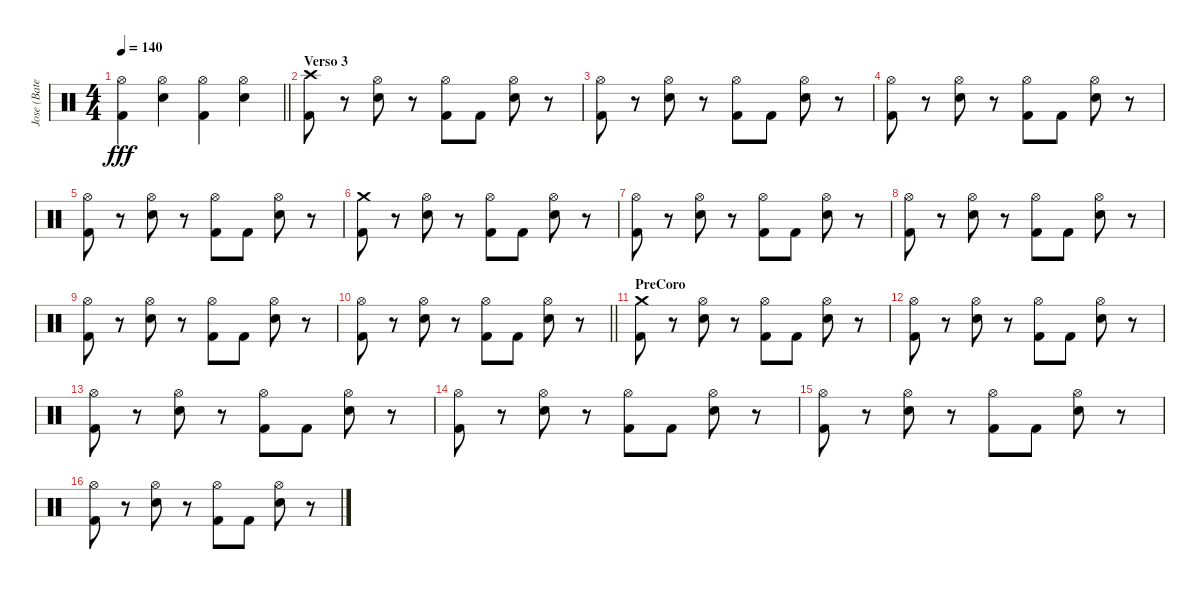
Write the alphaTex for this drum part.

\track ("Jose (Bateria)" "Jose (Bate") {instrument percussion}
\staff {score}
\articulation defaults
\ts (4 4)
\tempo 140
\clef neutral
\barLineRight lightlight
\ks aminor
("Hi-Hat (open)" "Kick (hit) 2").4{dy fff} ("Hi-Hat (open)" "Snare (hit) 2").4 ("Hi-Hat (open)" "Kick (hit) 2").4 ("Hi-Hat (open)" "Snare (hit) 2").4 |
\section ("" "Verso 3")
("Crash high (hit)" "Kick (hit) 2").8 r.8 ("Hi-Hat (open)" "Snare (hit) 2").8 r.8 ("Hi-Hat (open)" "Kick (hit) 2").8 "Kick (hit) 2".8 ("Hi-Hat (open)" "Snare (hit) 2").8 r.8 |
("Hi-Hat (open)" "Kick (hit) 2").8 r.8 ("Hi-Hat (open)" "Snare (hit) 2").8 r.8 ("Hi-Hat (open)" "Kick (hit) 2").8 "Kick (hit) 2".8 ("Hi-Hat (open)" "Snare (hit) 2").8 r.8 |
("Hi-Hat (open)" "Kick (hit) 2").8 r.8 ("Hi-Hat (open)" "Snare (hit) 2").8 r.8 ("Hi-Hat (open)" "Kick (hit) 2").8 "Kick (hit) 2".8 ("Hi-Hat (open)" "Snare (hit) 2").8 r.8 |
("Hi-Hat (open)" "Kick (hit) 2").8 r.8 ("Hi-Hat (open)" "Snare (hit) 2").8 r.8 ("Hi-Hat (open)" "Kick (hit) 2").8 "Kick (hit) 2".8 ("Hi-Hat (open)" "Snare (hit) 2").8 r.8 |
("Crash medium (hit)" "Kick (hit) 2").8 r.8 ("Hi-Hat (open)" "Snare (hit) 2").8 r.8 ("Hi-Hat (open)" "Kick (hit) 2").8 "Kick (hit) 2".8 ("Hi-Hat (open)" "Snare (hit) 2").8 r.8 |
("Hi-Hat (open)" "Kick (hit) 2").8 r.8 ("Hi-Hat (open)" "Snare (hit) 2").8 r.8 ("Hi-Hat (open)" "Kick (hit) 2").8 "Kick (hit) 2".8 ("Hi-Hat (open)" "Snare (hit) 2").8 r.8 |
("Hi-Hat (open)" "Kick (hit) 2").8 r.8 ("Hi-Hat (open)" "Snare (hit) 2").8 r.8 ("Hi-Hat (open)" "Kick (hit) 2").8 "Kick (hit) 2".8 ("Hi-Hat (open)" "Snare (hit) 2").8 r.8 |
("Hi-Hat (open)" "Kick (hit) 2").8 r.8 ("Hi-Hat (open)" "Snare (hit) 2").8 r.8 ("Hi-Hat (open)" "Kick (hit) 2").8 "Kick (hit) 2".8 ("Hi-Hat (open)" "Snare (hit) 2").8 r.8 |
\barLineRight lightlight
("Hi-Hat (open)" "Kick (hit) 2").8 r.8 ("Hi-Hat (open)" "Snare (hit) 2").8 r.8 ("Hi-Hat (open)" "Kick (hit) 2").8 "Kick (hit) 2".8 ("Hi-Hat (open)" "Snare (hit) 2").8 r.8 |
\section ("" "PreCoro")
("Crash medium (hit)" "Kick (hit) 2").8 r.8 ("Hi-Hat (open)" "Snare (hit) 2").8 r.8 ("Hi-Hat (open)" "Kick (hit) 2").8 "Kick (hit) 2".8 ("Hi-Hat (open)" "Snare (hit) 2").8 r.8 |
("Hi-Hat (open)" "Kick (hit) 2").8 r.8 ("Hi-Hat (open)" "Snare (hit) 2").8 r.8 ("Hi-Hat (open)" "Kick (hit) 2").8 "Kick (hit) 2".8 ("Hi-Hat (open)" "Snare (hit) 2").8 r.8 |
("Hi-Hat (open)" "Kick (hit) 2").8 r.8 ("Hi-Hat (open)" "Snare (hit) 2").8 r.8 ("Hi-Hat (open)" "Kick (hit) 2").8 "Kick (hit) 2".8 ("Hi-Hat (open)" "Snare (hit) 2").8 r.8 |
("Hi-Hat (open)" "Kick (hit) 2").8 r.8 ("Hi-Hat (open)" "Snare (hit) 2").8 r.8 ("Hi-Hat (open)" "Kick (hit) 2").8 "Kick (hit) 2".8 ("Hi-Hat (open)" "Snare (hit) 2").8 r.8 |
("Hi-Hat (open)" "Kick (hit) 2").8 r.8 ("Hi-Hat (open)" "Snare (hit) 2").8 r.8 ("Hi-Hat (open)" "Kick (hit) 2").8 "Kick (hit) 2".8 ("Hi-Hat (open)" "Snare (hit) 2").8 r.8 |
("Hi-Hat (open)" "Kick (hit) 2").8 r.8 ("Hi-Hat (open)" "Snare (hit) 2").8 r.8 ("Hi-Hat (open)" "Kick (hit) 2").8 "Kick (hit) 2".8 ("Hi-Hat (open)" "Snare (hit) 2").8 r.8
